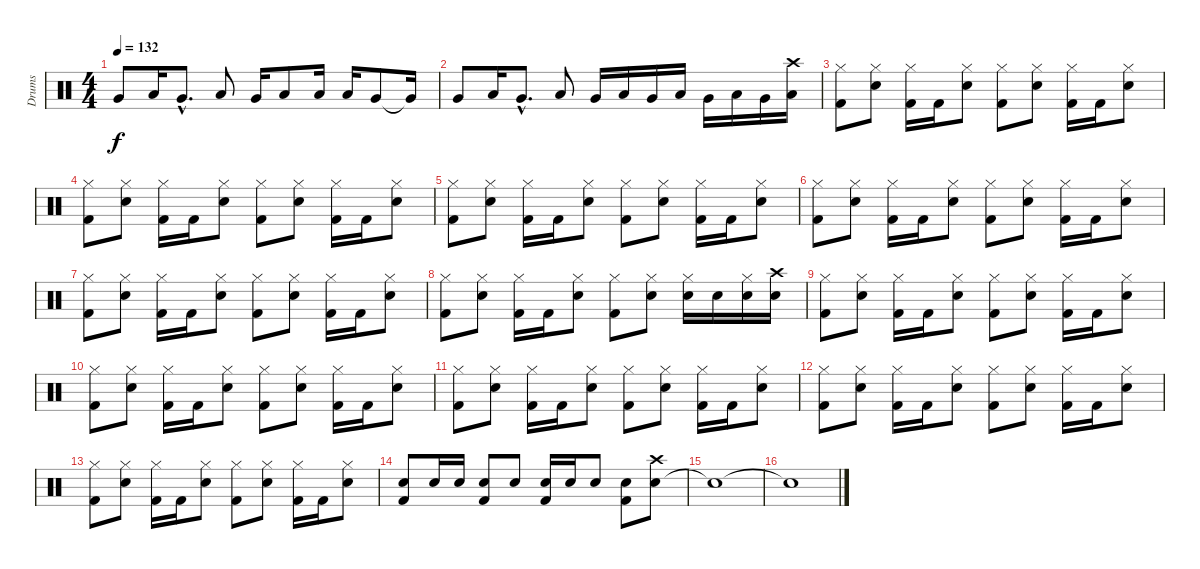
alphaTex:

\track ("Drums" "Drums") {instrument percussion}
\staff {score}
\articulation defaults
\ts (4 4)
\tempo 132
\clef neutral
\ks c "Very Low Tom (hit)".8{dy f} "Low Floor Tom (hit)".16 "Very Low Tom (hit)"{hac}.8{d} "Low Floor Tom (hit)".8 "Very Low Tom (hit)".16 "Low Floor Tom (hit)".8 "Low Floor Tom (hit)".16 "Low Floor Tom (hit)".16 "Very Low Tom (hit)".8 "Very Low Tom (hit)"{t}.16
|
"Very Low Tom (hit)".8 "Low Floor Tom (hit)".16 "Very Low Tom (hit)"{hac}.8{d} "Low Floor Tom (hit)".8 "Very Low Tom (hit)".16 "Low Floor Tom (hit)".16 "Very Low Tom (hit)".16 "Low Floor Tom (hit)".16 "Very Low Tom (hit)".16 "Low Floor Tom (hit)".16 "Very Low Tom (hit)".16 ("Low Floor Tom (hit)" "Crash high (hit)").16 |
("Kick (hit) 2" "Hi-Hat (closed)").8 ("Snare (hit) 2" "Hi-Hat (closed)").8 ("Kick (hit) 2" "Hi-Hat (closed)").16 "Kick (hit) 2".16 ("Snare (hit) 2" "Hi-Hat (closed)").8 ("Kick (hit) 2" "Hi-Hat (closed)").8 ("Snare (hit) 2" "Hi-Hat (closed)").8 ("Kick (hit) 2" "Hi-Hat (closed)").16 "Kick (hit) 2".16 ("Snare (hit) 2" "Hi-Hat (closed)").8 |
("Kick (hit) 2" "Hi-Hat (closed)").8 ("Snare (hit) 2" "Hi-Hat (closed)").8 ("Kick (hit) 2" "Hi-Hat (closed)").16 "Kick (hit) 2".16 ("Snare (hit) 2" "Hi-Hat (closed)").8 ("Kick (hit) 2" "Hi-Hat (closed)").8 ("Snare (hit) 2" "Hi-Hat (closed)").8 ("Kick (hit) 2" "Hi-Hat (closed)").16 "Kick (hit) 2".16 ("Snare (hit) 2" "Hi-Hat (closed)").8 |
("Kick (hit) 2" "Hi-Hat (closed)").8 ("Snare (hit) 2" "Hi-Hat (closed)").8 ("Kick (hit) 2" "Hi-Hat (closed)").16 "Kick (hit) 2".16 ("Snare (hit) 2" "Hi-Hat (closed)").8 ("Kick (hit) 2" "Hi-Hat (closed)").8 ("Snare (hit) 2" "Hi-Hat (closed)").8 ("Kick (hit) 2" "Hi-Hat (closed)").16 "Kick (hit) 2".16 ("Snare (hit) 2" "Hi-Hat (closed)").8 |
("Kick (hit) 2" "Hi-Hat (closed)").8 ("Snare (hit) 2" "Hi-Hat (closed)").8 ("Kick (hit) 2" "Hi-Hat (closed)").16 "Kick (hit) 2".16 ("Snare (hit) 2" "Hi-Hat (closed)").8 ("Kick (hit) 2" "Hi-Hat (closed)").8 ("Snare (hit) 2" "Hi-Hat (closed)").8 ("Kick (hit) 2" "Hi-Hat (closed)").16 "Kick (hit) 2".16 ("Snare (hit) 2" "Hi-Hat (closed)").8 |
("Kick (hit) 2" "Hi-Hat (closed)").8 ("Snare (hit) 2" "Hi-Hat (closed)").8 ("Kick (hit) 2" "Hi-Hat (closed)").16 "Kick (hit) 2".16 ("Snare (hit) 2" "Hi-Hat (closed)").8 ("Kick (hit) 2" "Hi-Hat (closed)").8 ("Snare (hit) 2" "Hi-Hat (closed)").8 ("Kick (hit) 2" "Hi-Hat (closed)").16 "Kick (hit) 2".16 ("Snare (hit) 2" "Hi-Hat (closed)").8 |
("Kick (hit) 2" "Hi-Hat (closed)").8 ("Snare (hit) 2" "Hi-Hat (closed)").8 ("Kick (hit) 2" "Hi-Hat (closed)").16 "Kick (hit) 2".16 ("Snare (hit) 2" "Hi-Hat (closed)").8 ("Kick (hit) 2" "Hi-Hat (closed)").8 ("Snare (hit) 2" "Hi-Hat (closed)").8 ("Snare (hit) 2" "Hi-Hat (closed)").16 "Snare (hit) 2".16 ("Snare (hit) 2" "Hi-Hat (closed)").16 ("Snare (hit) 2" "Crash high (hit)").16 |
("Kick (hit) 2" "Hi-Hat (closed)").8 ("Snare (hit) 2" "Hi-Hat (closed)").8 ("Kick (hit) 2" "Hi-Hat (closed)").16 "Kick (hit) 2".16 ("Snare (hit) 2" "Hi-Hat (closed)").8 ("Kick (hit) 2" "Hi-Hat (closed)").8 ("Snare (hit) 2" "Hi-Hat (closed)").8 ("Kick (hit) 2" "Hi-Hat (closed)").16 "Kick (hit) 2".16 ("Snare (hit) 2" "Hi-Hat (closed)").8 |
("Kick (hit) 2" "Hi-Hat (closed)").8 ("Snare (hit) 2" "Hi-Hat (closed)").8 ("Kick (hit) 2" "Hi-Hat (closed)").16 "Kick (hit) 2".16 ("Snare (hit) 2" "Hi-Hat (closed)").8 ("Kick (hit) 2" "Hi-Hat (closed)").8 ("Snare (hit) 2" "Hi-Hat (closed)").8 ("Kick (hit) 2" "Hi-Hat (closed)").16 "Kick (hit) 2".16 ("Snare (hit) 2" "Hi-Hat (closed)").8 |
("Kick (hit) 2" "Hi-Hat (closed)").8 ("Snare (hit) 2" "Hi-Hat (closed)").8 ("Kick (hit) 2" "Hi-Hat (closed)").16 "Kick (hit) 2".16 ("Snare (hit) 2" "Hi-Hat (closed)").8 ("Kick (hit) 2" "Hi-Hat (closed)").8 ("Snare (hit) 2" "Hi-Hat (closed)").8 ("Kick (hit) 2" "Hi-Hat (closed)").16 "Kick (hit) 2".16 ("Snare (hit) 2" "Hi-Hat (closed)").8 |
("Kick (hit) 2" "Hi-Hat (closed)").8 ("Snare (hit) 2" "Hi-Hat (closed)").8 ("Kick (hit) 2" "Hi-Hat (closed)").16 "Kick (hit) 2".16 ("Snare (hit) 2" "Hi-Hat (closed)").8 ("Kick (hit) 2" "Hi-Hat (closed)").8 ("Snare (hit) 2" "Hi-Hat (closed)").8 ("Kick (hit) 2" "Hi-Hat (closed)").16 "Kick (hit) 2".16 ("Snare (hit) 2" "Hi-Hat (closed)").8 |
("Kick (hit) 2" "Hi-Hat (closed)").8 ("Snare (hit) 2" "Hi-Hat (closed)").8 ("Kick (hit) 2" "Hi-Hat (closed)").16 "Kick (hit) 2".16 ("Snare (hit) 2" "Hi-Hat (closed)").8 ("Kick (hit) 2" "Hi-Hat (closed)").8 ("Snare (hit) 2" "Hi-Hat (closed)").8 ("Kick (hit) 2" "Hi-Hat (closed)").16 "Kick (hit) 2".16 ("Snare (hit) 2" "Hi-Hat (closed)").8 |
("Snare (hit) 2" "Kick (hit) 2").8 "Snare (hit) 2".16 "Snare (hit) 2".16 ("Snare (hit) 2" "Kick (hit) 2").8 "Snare (hit) 2".8 ("Snare (hit) 2" "Kick (hit) 2").16 "Snare (hit) 2".16 "Snare (hit) 2".8 ("Snare (hit) 2" "Kick (hit) 2").8 ("Snare (hit) 2" "Crash high (hit)").8 |
"Snare (hit)"{t}.1 |
"Snare (hit)"{t}.1
